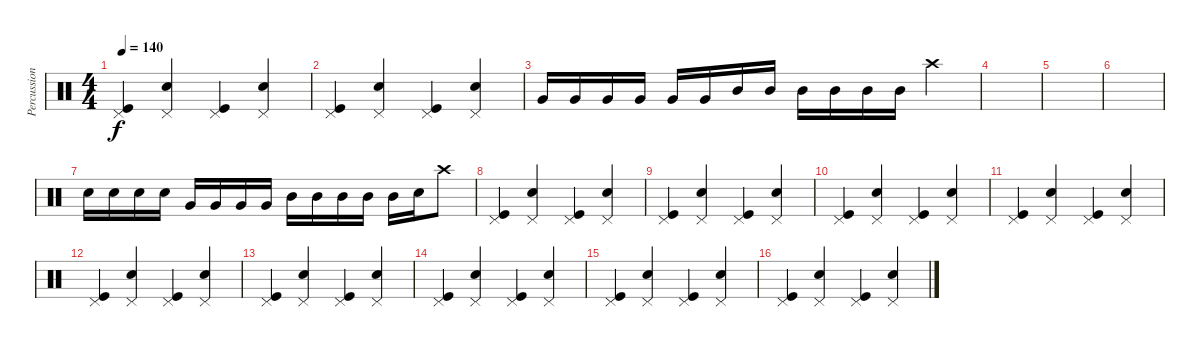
\track ("Percussion" "Percussion") {instrument percussion}
\staff {score}
\articulation defaults
\ts (4 4)
\tempo 140
\clef neutral
\ks c
("Kick (hit)" "Pedal Hi-Hat (hit)").4{dy f} ("Snare (hit) 2" "Pedal Hi-Hat (hit)").4 ("Kick (hit)" "Pedal Hi-Hat (hit)").4 ("Snare (hit) 2" "Pedal Hi-Hat (hit)").4 |
("Kick (hit)" "Pedal Hi-Hat (hit)").4 ("Snare (hit) 2" "Pedal Hi-Hat (hit)").4 ("Kick (hit)" "Pedal Hi-Hat (hit)").4 ("Snare (hit) 2" "Pedal Hi-Hat (hit)").4 |
"Very Low Tom (hit)".16 "Very Low Tom (hit)".16 "Very Low Tom (hit)".16 "Very Low Tom (hit)".16 "Very Low Tom (hit)".16 "Very Low Tom (hit)".16 "Mid Tom (hit)".16 "Mid Tom (hit)".16 "Mid Tom (hit)".16 "Mid Tom (hit)".16 "Mid Tom (hit)".16 "Mid Tom (hit)".16 "Crash high (hit)".4 |
|
|
|
"Snare (hit) 2".16 "Snare (hit) 2".16 "Snare (hit) 2".16 "Snare (hit) 2".16 "Very Low Tom (hit)".16 "Very Low Tom (hit)".16 "Very Low Tom (hit)".16 "Very Low Tom (hit)".16 "Mid Tom (hit)".16 "Mid Tom (hit)".16 "Mid Tom (hit)".16 "Mid Tom (hit)".16 "Mid Tom (hit)".16 "Snare (hit) 2".16 "Crash high (hit)".8 |
("Kick (hit)" "Pedal Hi-Hat (hit)").4 ("Snare (hit) 2" "Pedal Hi-Hat (hit)").4 ("Kick (hit)" "Pedal Hi-Hat (hit)").4 ("Snare (hit) 2" "Pedal Hi-Hat (hit)").4 |
("Kick (hit)" "Pedal Hi-Hat (hit)").4 ("Snare (hit) 2" "Pedal Hi-Hat (hit)").4 ("Kick (hit)" "Pedal Hi-Hat (hit)").4 ("Snare (hit) 2" "Pedal Hi-Hat (hit)").4 |
("Kick (hit)" "Pedal Hi-Hat (hit)").4 ("Snare (hit) 2" "Pedal Hi-Hat (hit)").4 ("Kick (hit)" "Pedal Hi-Hat (hit)").4 ("Snare (hit) 2" "Pedal Hi-Hat (hit)").4 |
("Kick (hit)" "Pedal Hi-Hat (hit)").4 ("Snare (hit) 2" "Pedal Hi-Hat (hit)").4 ("Kick (hit)" "Pedal Hi-Hat (hit)").4 ("Snare (hit) 2" "Pedal Hi-Hat (hit)").4 |
("Kick (hit)" "Pedal Hi-Hat (hit)").4 ("Snare (hit) 2" "Pedal Hi-Hat (hit)").4 ("Kick (hit)" "Pedal Hi-Hat (hit)").4 ("Snare (hit) 2" "Pedal Hi-Hat (hit)").4 |
("Kick (hit)" "Pedal Hi-Hat (hit)").4 ("Snare (hit) 2" "Pedal Hi-Hat (hit)").4 ("Kick (hit)" "Pedal Hi-Hat (hit)").4 ("Snare (hit) 2" "Pedal Hi-Hat (hit)").4 |
("Kick (hit)" "Pedal Hi-Hat (hit)").4 ("Snare (hit) 2" "Pedal Hi-Hat (hit)").4 ("Kick (hit)" "Pedal Hi-Hat (hit)").4 ("Snare (hit) 2" "Pedal Hi-Hat (hit)").4 |
("Kick (hit)" "Pedal Hi-Hat (hit)").4 ("Snare (hit) 2" "Pedal Hi-Hat (hit)").4 ("Kick (hit)" "Pedal Hi-Hat (hit)").4 ("Snare (hit) 2" "Pedal Hi-Hat (hit)").4 |
("Kick (hit)" "Pedal Hi-Hat (hit)").4 ("Snare (hit) 2" "Pedal Hi-Hat (hit)").4 ("Kick (hit)" "Pedal Hi-Hat (hit)").4 ("Snare (hit) 2" "Pedal Hi-Hat (hit)").4
